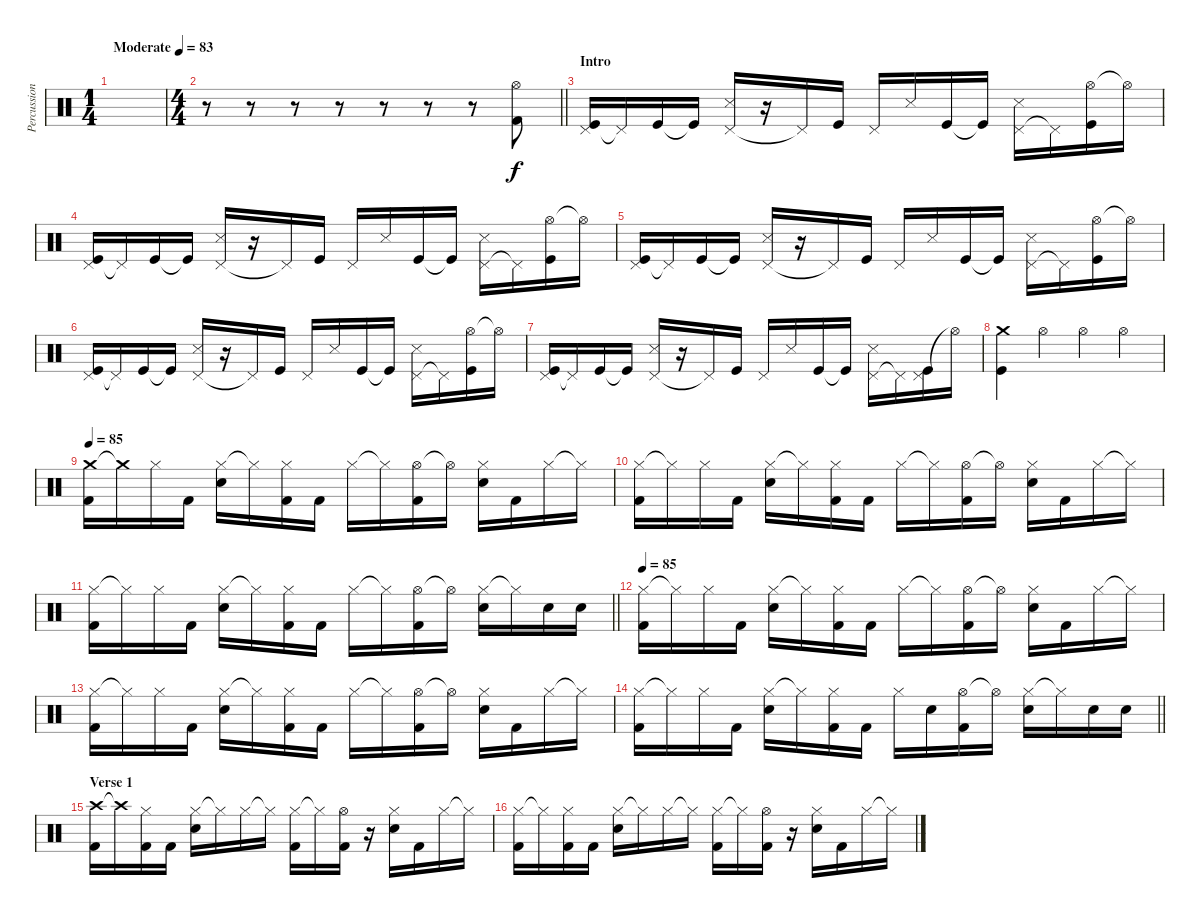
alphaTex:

\track ("Percussion" "Percussion") {instrument percussion}
\staff {score}
\articulation defaults
\ts (1 4)
\tempo (83 "Moderate")
\clef neutral
\ks c
|
\ts (4 4)
\barLineRight lightlight
r.8 r.8 r.8 r.8 r.8 r.8 r.8 ("Hi-Hat (open)" "Kick (hit) 2").8 |
\section ("" "Intro")
("Pedal Hi-Hat (hit)" "Kick (hit)").16 "Pedal Hi-Hat (hit)"{t}.16 "Kick (hit)".16 "Kick (hit)"{t}.16 ("Pedal Hi-Hat (hit)" "Snare (side stick) 3").16 r.16 "Pedal Hi-Hat (hit)"{t}.16 "Kick (hit)".16 "Pedal Hi-Hat (hit)".16 "Snare (side stick) 3".16 "Kick (hit)".16 "Kick (hit)"{t}.16 ("Pedal Hi-Hat (hit)" "Snare (side stick) 3").16 "Pedal Hi-Hat (hit)"{t}.16 ("Hi-Hat (open)" "Kick (hit)").16 "Hi-Hat (open)"{t}.16 |
("Pedal Hi-Hat (hit)" "Kick (hit)").16 "Pedal Hi-Hat (hit)"{t}.16 "Kick (hit)".16 "Kick (hit)"{t}.16 ("Pedal Hi-Hat (hit)" "Snare (side stick) 3").16 r.16 "Pedal Hi-Hat (hit)"{t}.16 "Kick (hit)".16 "Pedal Hi-Hat (hit)".16 "Snare (side stick) 3".16 "Kick (hit)".16 "Kick (hit)"{t}.16 ("Pedal Hi-Hat (hit)" "Snare (side stick) 3").16 "Pedal Hi-Hat (hit)"{t}.16 ("Hi-Hat (open)" "Kick (hit)").16 "Hi-Hat (open)"{t}.16 |
("Pedal Hi-Hat (hit)" "Kick (hit)").16 "Pedal Hi-Hat (hit)"{t}.16 "Kick (hit)".16 "Kick (hit)"{t}.16 ("Pedal Hi-Hat (hit)" "Snare (side stick) 3").16 r.16 "Pedal Hi-Hat (hit)"{t}.16 "Kick (hit)".16 "Pedal Hi-Hat (hit)".16 "Snare (side stick) 3".16 "Kick (hit)".16 "Kick (hit)"{t}.16 ("Pedal Hi-Hat (hit)" "Snare (side stick) 3").16 "Pedal Hi-Hat (hit)"{t}.16 ("Hi-Hat (open)" "Kick (hit)").16 "Hi-Hat (open)"{t}.16 |
("Pedal Hi-Hat (hit)" "Kick (hit)").16 "Pedal Hi-Hat (hit)"{t}.16 "Kick (hit)".16 "Kick (hit)"{t}.16 ("Pedal Hi-Hat (hit)" "Snare (side stick) 3").16 r.16 "Pedal Hi-Hat (hit)"{t}.16 "Kick (hit)".16 "Pedal Hi-Hat (hit)".16 "Snare (side stick) 3".16 "Kick (hit)".16 "Kick (hit)"{t}.16 ("Pedal Hi-Hat (hit)" "Snare (side stick) 3").16 "Pedal Hi-Hat (hit)"{t}.16 ("Hi-Hat (open)" "Kick (hit)").16 "Hi-Hat (open)"{t}.16 |
("Pedal Hi-Hat (hit)" "Kick (hit)").16 "Pedal Hi-Hat (hit)"{t}.16 "Kick (hit)".16 "Kick (hit)"{t}.16 ("Pedal Hi-Hat (hit)" "Snare (side stick) 3").16 r.16 "Pedal Hi-Hat (hit)"{t}.16 "Kick (hit)".16 "Pedal Hi-Hat (hit)".16 "Snare (side stick) 3".16 "Kick (hit)".16 "Kick (hit)"{t}.16 ("Pedal Hi-Hat (hit)" "Snare (side stick) 3").16 "Pedal Hi-Hat (hit)"{t}.16 ("Pedal Hi-Hat (hit)" "Kick (hit)").16 "Hi-Hat (open)"{t}.16 |
("Crash medium (hit)" "Kick (hit)").4 "Hi-Hat (open)".4 "Hi-Hat (open)".4 "Hi-Hat (open)".4 |
\tempo 85
("Crash medium (hit)" "Kick (hit) 2").16 "Crash medium (hit)"{t}.16 "Hi-Hat (closed)".16 "Kick (hit) 2".16 ("Hi-Hat (closed)" "Electric Snare (hit)").16 "Hi-Hat (closed)"{t}.16 ("Hi-Hat (closed)" "Kick (hit) 2").16 "Kick (hit) 2".16 "Hi-Hat (closed)".16 "Hi-Hat (closed)"{t}.16 ("Hi-Hat (open)" "Kick (hit) 2").16 "Hi-Hat (open)"{t}.16 ("Hi-Hat (closed)" "Electric Snare (hit)").16 "Kick (hit) 2".16 "Hi-Hat (closed)".16 "Hi-Hat (closed)"{t}.16 |
("Hi-Hat (closed)" "Kick (hit) 2").16 "Hi-Hat (closed)"{t}.16 "Hi-Hat (closed)".16 "Kick (hit) 2".16 ("Hi-Hat (closed)" "Electric Snare (hit)").16 "Hi-Hat (closed)"{t}.16 ("Hi-Hat (closed)" "Kick (hit) 2").16 "Kick (hit) 2".16 "Hi-Hat (closed)".16 "Hi-Hat (closed)"{t}.16 ("Hi-Hat (open)" "Kick (hit) 2").16 "Hi-Hat (open)"{t}.16 ("Hi-Hat (closed)" "Electric Snare (hit)").16 "Kick (hit) 2".16 "Hi-Hat (closed)".16 "Hi-Hat (closed)"{t}.16 |
\barLineRight lightlight
("Hi-Hat (closed)" "Kick (hit) 2").16 "Hi-Hat (closed)"{t}.16 "Hi-Hat (closed)".16 "Kick (hit) 2".16 ("Hi-Hat (closed)" "Electric Snare (hit)").16 "Hi-Hat (closed)"{t}.16 ("Hi-Hat (closed)" "Kick (hit) 2").16 "Kick (hit) 2".16 "Hi-Hat (closed)".16 "Hi-Hat (closed)"{t}.16 ("Hi-Hat (open)" "Kick (hit) 2").16 "Hi-Hat (open)"{t}.16 ("Hi-Hat (closed)" "Electric Snare (hit)").16 "Hi-Hat (closed)"{t}.16 "Electric Snare (hit)".16 "Electric Snare (hit)".16 |
\tempo 85
("Hi-Hat (closed)" "Kick (hit) 2").16 "Hi-Hat (closed)"{t}.16 "Hi-Hat (closed)".16 "Kick (hit) 2".16 ("Hi-Hat (closed)" "Electric Snare (hit)").16 "Hi-Hat (closed)"{t}.16 ("Hi-Hat (closed)" "Kick (hit) 2").16 "Kick (hit) 2".16 "Hi-Hat (closed)".16 "Hi-Hat (closed)"{t}.16 ("Hi-Hat (open)" "Kick (hit) 2").16 "Hi-Hat (open)"{t}.16 ("Hi-Hat (closed)" "Electric Snare (hit)").16 "Kick (hit) 2".16 "Hi-Hat (closed)".16 "Hi-Hat (closed)"{t}.16 |
("Hi-Hat (closed)" "Kick (hit) 2").16 "Hi-Hat (closed)"{t}.16 "Hi-Hat (closed)".16 "Kick (hit) 2".16 ("Hi-Hat (closed)" "Electric Snare (hit)").16 "Hi-Hat (closed)"{t}.16 ("Hi-Hat (closed)" "Kick (hit) 2").16 "Kick (hit) 2".16 "Hi-Hat (closed)".16 "Hi-Hat (closed)"{t}.16 ("Hi-Hat (open)" "Kick (hit) 2").16 "Hi-Hat (open)"{t}.16 ("Hi-Hat (closed)" "Electric Snare (hit)").16 "Kick (hit) 2".16 "Hi-Hat (closed)".16 "Hi-Hat (closed)"{t}.16 |
\barLineRight lightlight
("Hi-Hat (closed)" "Kick (hit) 2").16 "Hi-Hat (closed)"{t}.16 "Hi-Hat (closed)".16 "Kick (hit) 2".16 ("Hi-Hat (closed)" "Electric Snare (hit)").16 "Hi-Hat (closed)"{t}.16 ("Hi-Hat (closed)" "Kick (hit) 2").16 "Kick (hit) 2".16 "Hi-Hat (closed)".16 "Electric Snare (hit)".16 ("Hi-Hat (open)" "Kick (hit) 2").16 "Hi-Hat (open)"{t}.16 ("Hi-Hat (closed)" "Electric Snare (hit)").16 "Hi-Hat (closed)"{t}.16 "Electric Snare (hit)".16 "Electric Snare (hit)".16 |
\section ("" "Verse 1")
("Crash high (hit)" "Kick (hit) 2").16 "Crash high (hit)"{t}.16 ("Hi-Hat (closed)" "Kick (hit) 2").16 "Kick (hit) 2".16 ("Hi-Hat (closed)" "Electric Snare (hit)").16 "Hi-Hat (closed)"{t}.16 "Hi-Hat (closed)".16 "Hi-Hat (closed)"{t}.16 ("Hi-Hat (closed)" "Kick (hit) 2").16 "Hi-Hat (closed)"{t}.16 ("Hi-Hat (open)" "Kick (hit) 2").16 r.16 ("Hi-Hat (closed)" "Electric Snare (hit)").16 "Kick (hit) 2".16 "Hi-Hat (closed)".16 "Hi-Hat (closed)"{t}.16 |
("Hi-Hat (closed)" "Kick (hit) 2").16 "Hi-Hat (closed)"{t}.16 ("Hi-Hat (closed)" "Kick (hit) 2").16 "Kick (hit) 2".16 ("Hi-Hat (closed)" "Electric Snare (hit)").16 "Hi-Hat (closed)"{t}.16 "Hi-Hat (closed)".16 "Hi-Hat (closed)"{t}.16 ("Hi-Hat (closed)" "Kick (hit) 2").16 "Hi-Hat (closed)"{t}.16 ("Hi-Hat (open)" "Kick (hit) 2").16 r.16 ("Hi-Hat (closed)" "Electric Snare (hit)").16 "Kick (hit) 2".16 "Hi-Hat (closed)".16 "Hi-Hat (closed)"{t}.16
